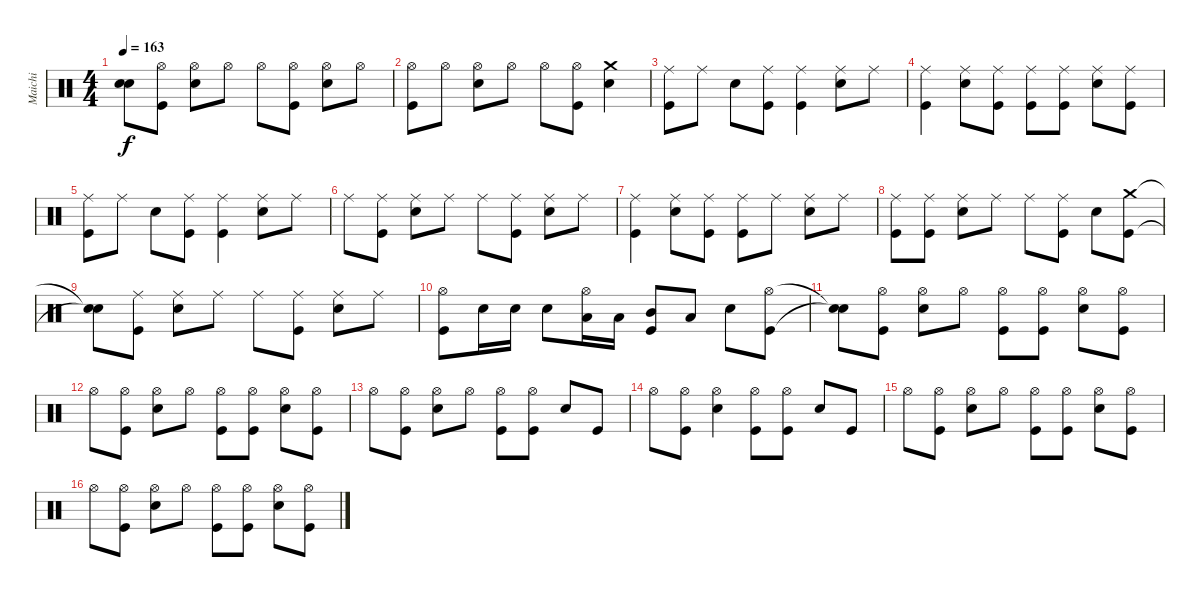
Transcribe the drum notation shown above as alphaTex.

\track ("Maichi" "Maichi") {instrument percussion}
\staff {score}
\articulation defaults
\ts (4 4)
\tempo 163
\clef neutral
\ks c
("Snare (hit)"{t} "Snare (hit)"{t}).8{dy f} ("Hi-Hat (open)" "Kick (hit)").8 ("Hi-Hat (open)" "Electric Snare (hit)").8 "Hi-Hat (open)".8 "Hi-Hat (open)".8 ("Kick (hit)" "Hi-Hat (open)").8 ("Hi-Hat (open)" "Electric Snare (hit)").8 "Hi-Hat (open)".8 |
("Kick (hit)" "Hi-Hat (open)").8 "Hi-Hat (open)".8 ("Electric Snare (hit)" "Hi-Hat (open)").8 "Hi-Hat (open)".8 "Hi-Hat (open)".8 ("Hi-Hat (open)" "Kick (hit)").8 ("Crash medium (hit)" "Electric Snare (hit)").4 |
("Ride (middle)" "Kick (hit)").8 "Ride (middle)".8 "Electric Snare (hit)".8 ("Ride (middle)" "Kick (hit)").8 ("Kick (hit)" "Ride (middle)").4 ("Ride (middle)" "Electric Snare (hit)").8 "Ride (middle)".8 |
("Kick (hit)" "Ride (middle)").4 ("Ride (middle)" "Electric Snare (hit)").8 ("Kick (hit)" "Ride (middle)").8 ("Kick (hit)" "Ride (middle)").8 ("Kick (hit)" "Ride (middle)").8 ("Electric Snare (hit)" "Ride (middle)").8 ("Ride (middle)" "Kick (hit)").8 |
("Ride (middle)" "Kick (hit)").8 "Ride (middle)".8 "Electric Snare (hit)".8 ("Ride (middle)" "Kick (hit)").8 ("Kick (hit)" "Ride (middle)").4 ("Ride (middle)" "Electric Snare (hit)").8 "Ride (middle)".8 |
"Ride (middle)".8 ("Kick (hit)" "Ride (middle)").8 ("Ride (middle)" "Electric Snare (hit)").8 "Ride (middle)".8 "Ride (middle)".8 ("Ride (middle)" "Kick (hit)").8 ("Electric Snare (hit)" "Ride (middle)").8 "Ride (middle)".8 |
("Kick (hit)" "Ride (middle)").4 ("Ride (middle)" "Electric Snare (hit)").8 ("Ride (middle)" "Kick (hit)").8 ("Kick (hit)" "Ride (middle)").8 "Ride (middle)".8 ("Ride (middle)" "Electric Snare (hit)").8 "Ride (middle)".8 |
("Kick (hit)" "Ride (middle)").8 ("Ride (middle)" "Kick (hit)").8 ("Ride (middle)" "Electric Snare (hit)").8 "Ride (middle)".8 "Ride (middle)".8 ("Kick (hit)" "Ride (middle)").8 "Electric Snare (hit)".8 ("Kick (hit)" "Crash medium (hit)").8 |
("Snare (hit)"{t} "Snare (hit)"{t}).8 ("Kick (hit)" "Ride (middle)").8 ("Electric Snare (hit)" "Ride (middle)").8 "Ride (middle)".8 "Ride (middle)".8 ("Ride (middle)" "Kick (hit)").8 ("Ride (middle)" "Electric Snare (hit)").8 "Ride (middle)".8 |
("Kick (hit)" "Hi-Hat (open)").8 "Electric Snare (hit)".16 "Electric Snare (hit)".16 "Snare (hit) 2".8 ("Low Tom (hit)" "Hi-Hat (open)").16 "Low Tom (hit)".16 ("Kick (hit)" "Mid Tom (hit)").8 "Low Tom (hit)".8 "Electric Snare (hit)".8 ("Hi-Hat (open)" "Kick (hit)").8 |
("Snare (hit)"{t} "Snare (hit)"{t}).8 ("Kick (hit)" "Hi-Hat (open)").8 ("Hi-Hat (open)" "Electric Snare (hit)").8 "Hi-Hat (open)".8 ("Kick (hit)" "Hi-Hat (open)").8 ("Kick (hit)" "Hi-Hat (open)").8 ("Hi-Hat (open)" "Electric Snare (hit)").8 ("Hi-Hat (open)" "Kick (hit)").8 |
"Hi-Hat (open)".8 ("Kick (hit)" "Hi-Hat (open)").8 ("Hi-Hat (open)" "Electric Snare (hit)").8 "Hi-Hat (open)".8 ("Kick (hit)" "Hi-Hat (open)").8 ("Kick (hit)" "Hi-Hat (open)").8 ("Electric Snare (hit)" "Hi-Hat (open)").8 ("Hi-Hat (open)" "Kick (hit)").8 |
"Hi-Hat (open)".8 ("Hi-Hat (open)" "Kick (hit)").8 ("Hi-Hat (open)" "Electric Snare (hit)").8 "Hi-Hat (open)".8 ("Kick (hit)" "Hi-Hat (open)").8 ("Hi-Hat (open)" "Kick (hit)").8 "Electric Snare (hit)".8 "Kick (hit)".8 |
"Hi-Hat (open)".8 ("Hi-Hat (open)" "Kick (hit)").8 ("Electric Snare (hit)" "Hi-Hat (open)").4 ("Kick (hit)" "Hi-Hat (open)").8 ("Hi-Hat (open)" "Kick (hit)").8 "Electric Snare (hit)".8 "Kick (hit)".8 |
"Hi-Hat (open)".8 ("Kick (hit)" "Hi-Hat (open)").8 ("Hi-Hat (open)" "Electric Snare (hit)").8 "Hi-Hat (open)".8 ("Kick (hit)" "Hi-Hat (open)").8 ("Hi-Hat (open)" "Kick (hit)").8 ("Electric Snare (hit)" "Hi-Hat (open)").8 ("Hi-Hat (open)" "Kick (hit)").8 |
"Hi-Hat (open)".8 ("Kick (hit)" "Hi-Hat (open)").8 ("Hi-Hat (open)" "Electric Snare (hit)").8 "Hi-Hat (open)".8 ("Kick (hit)" "Hi-Hat (open)").8 ("Kick (hit)" "Hi-Hat (open)").8 ("Hi-Hat (open)" "Electric Snare (hit)").8 ("Kick (hit)" "Hi-Hat (open)").8
